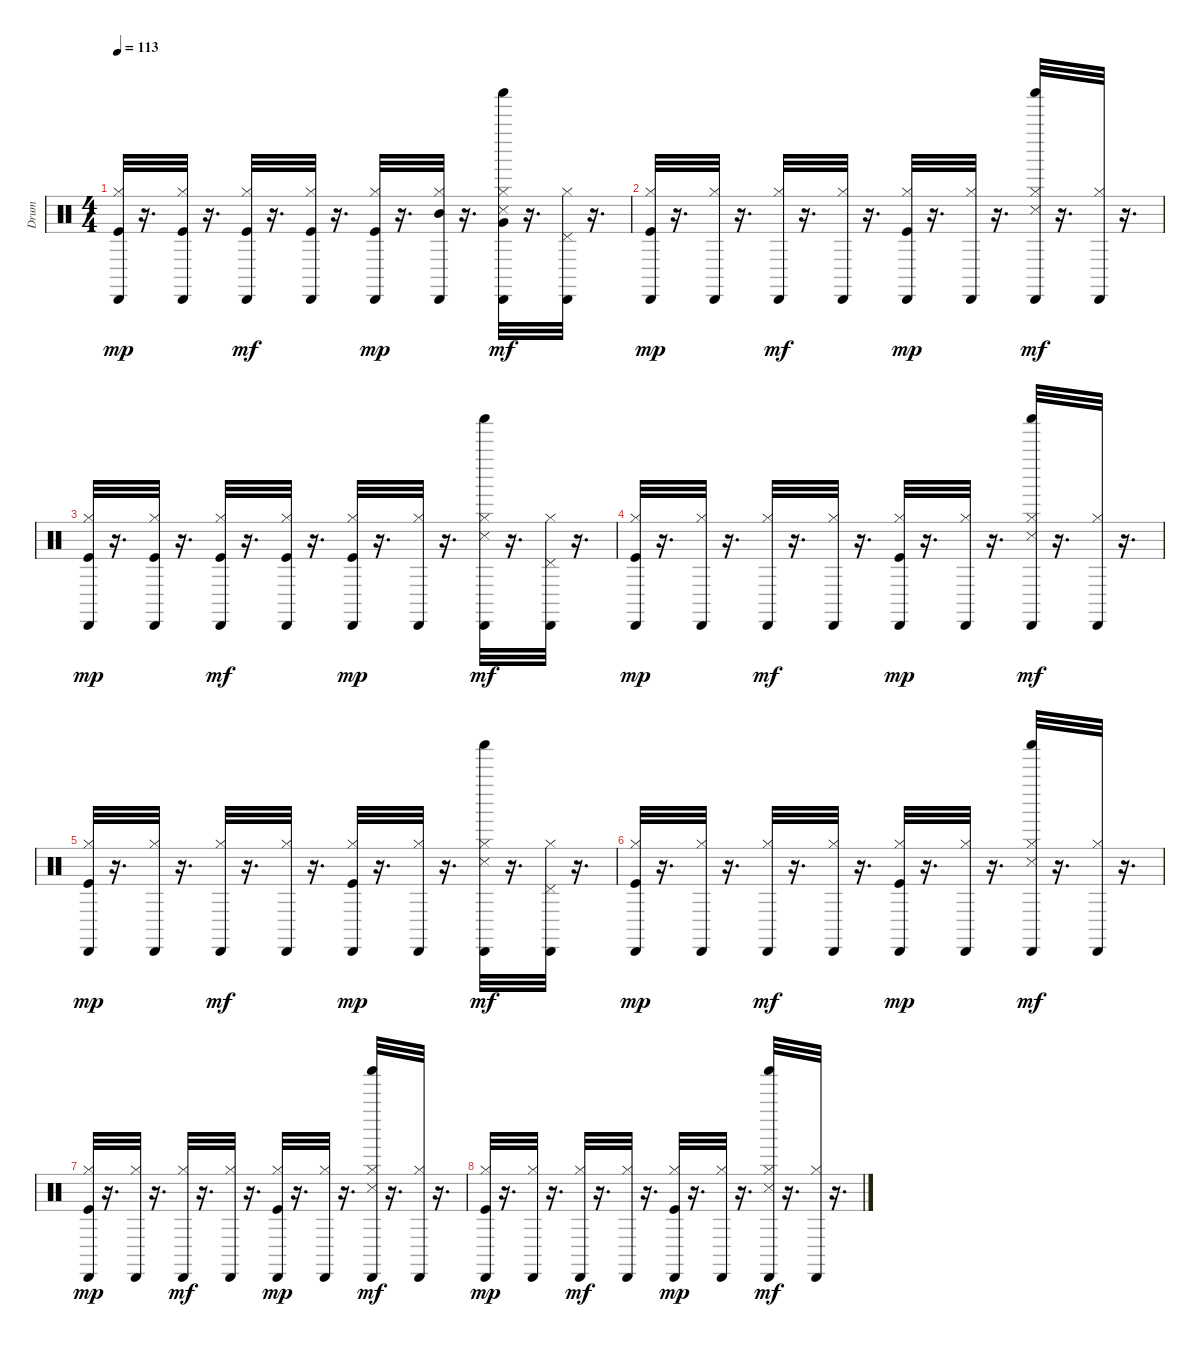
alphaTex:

\track ("Drum" "Drum") {instrument percussion}
\staff {score}
\articulation defaults
\ts (4 4)
\tempo 113
\clef neutral
\ks c
("Hi-Hat (closed)" "Kick (hit)" "Cabasa (hit)").32{dy mp} r.16{d} ("Hi-Hat (closed)" "Kick (hit)" "Cabasa (hit)").32 r.16{d} ("Hi-Hat (closed)" "Kick (hit)" "Cabasa (hit)").32{dy mf} r.16{d} ("Hi-Hat (closed)" "Kick (hit)" "Cabasa (hit)").32 r.16{d} ("Hi-Hat (closed)" "Kick (hit)" "Cabasa (hit)").32{dy mp} r.16{d} ("Hi-Hat (closed)" "Mid Tom (hit)" "Cabasa (hit)").32 r.16{d} ("Hi-Hat (closed)" "Very Low Tom (hit)" "Shaker (hit)" "Snare (side stick) 3" "Cabasa (hit)").32{dy mf} r.16{d} ("Hi-Hat (closed)" "Pedal Hi-Hat (hit)" "Cabasa (hit)").32 r.16{d} |
("Hi-Hat (closed)" "Kick (hit)" "Cabasa (hit)").32{dy mp} r.16{d} ("Hi-Hat (closed)" "Cabasa (hit)").32 r.16{d} ("Hi-Hat (closed)" "Cabasa (hit)").32{dy mf} r.16{d} ("Hi-Hat (closed)" "Cabasa (hit)").32 r.16{d} ("Hi-Hat (closed)" "Kick (hit)" "Cabasa (hit)").32{dy mp} r.16{d} ("Hi-Hat (closed)" "Cabasa (hit)").32 r.16{d} ("Hi-Hat (closed)" "Shaker (hit)" "Snare (side stick) 3" "Cabasa (hit)").32{dy mf} r.16{d} ("Hi-Hat (closed)" "Cabasa (hit)").32 r.16{d} |
("Hi-Hat (closed)" "Kick (hit)" "Cabasa (hit)").32{dy mp} r.16{d} ("Hi-Hat (closed)" "Kick (hit)" "Cabasa (hit)").32 r.16{d} ("Hi-Hat (closed)" "Kick (hit)" "Cabasa (hit)").32{dy mf} r.16{d} ("Hi-Hat (closed)" "Kick (hit)" "Cabasa (hit)").32 r.16{d} ("Hi-Hat (closed)" "Kick (hit)" "Cabasa (hit)").32{dy mp} r.16{d} ("Hi-Hat (closed)" "Cabasa (hit)").32 r.16{d} ("Hi-Hat (closed)" "Shaker (hit)" "Snare (side stick) 3" "Cabasa (hit)").32{dy mf} r.16{d} ("Hi-Hat (closed)" "Pedal Hi-Hat (hit)" "Cabasa (hit)").32 r.16{d} |
("Hi-Hat (closed)" "Kick (hit)" "Cabasa (hit)").32{dy mp} r.16{d} ("Hi-Hat (closed)" "Cabasa (hit)").32 r.16{d} ("Hi-Hat (closed)" "Cabasa (hit)").32{dy mf} r.16{d} ("Hi-Hat (closed)" "Cabasa (hit)").32 r.16{d} ("Hi-Hat (closed)" "Kick (hit)" "Cabasa (hit)").32{dy mp} r.16{d} ("Hi-Hat (closed)" "Cabasa (hit)").32 r.16{d} ("Hi-Hat (closed)" "Shaker (hit)" "Snare (side stick) 3" "Cabasa (hit)").32{dy mf} r.16{d} ("Hi-Hat (closed)" "Cabasa (hit)").32 r.16{d} |
("Hi-Hat (closed)" "Kick (hit)" "Cabasa (hit)").32{dy mp} r.16{d} ("Hi-Hat (closed)" "Cabasa (hit)").32 r.16{d} ("Hi-Hat (closed)" "Cabasa (hit)").32{dy mf} r.16{d} ("Hi-Hat (closed)" "Cabasa (hit)").32 r.16{d} ("Hi-Hat (closed)" "Kick (hit)" "Cabasa (hit)").32{dy mp} r.16{d} ("Hi-Hat (closed)" "Cabasa (hit)").32 r.16{d} ("Hi-Hat (closed)" "Shaker (hit)" "Snare (side stick) 3" "Cabasa (hit)").32{dy mf} r.16{d} ("Hi-Hat (closed)" "Pedal Hi-Hat (hit)" "Cabasa (hit)").32 r.16{d} |
("Hi-Hat (closed)" "Kick (hit)" "Cabasa (hit)").32{dy mp} r.16{d} ("Hi-Hat (closed)" "Cabasa (hit)").32 r.16{d} ("Hi-Hat (closed)" "Cabasa (hit)").32{dy mf} r.16{d} ("Hi-Hat (closed)" "Cabasa (hit)").32 r.16{d} ("Hi-Hat (closed)" "Kick (hit)" "Cabasa (hit)").32{dy mp} r.16{d} ("Hi-Hat (closed)" "Cabasa (hit)").32 r.16{d} ("Hi-Hat (closed)" "Shaker (hit)" "Snare (side stick) 3" "Cabasa (hit)").32{dy mf} r.16{d} ("Hi-Hat (closed)" "Cabasa (hit)").32 r.16{d} |
("Hi-Hat (closed)" "Kick (hit)" "Cabasa (hit)").32{dy mp} r.16{d} ("Hi-Hat (closed)" "Cabasa (hit)").32 r.16{d} ("Hi-Hat (closed)" "Cabasa (hit)").32{dy mf} r.16{d} ("Hi-Hat (closed)" "Cabasa (hit)").32 r.16{d} ("Hi-Hat (closed)" "Kick (hit)" "Cabasa (hit)").32{dy mp} r.16{d} ("Hi-Hat (closed)" "Cabasa (hit)").32 r.16{d} ("Hi-Hat (closed)" "Shaker (hit)" "Snare (side stick) 3" "Cabasa (hit)").32{dy mf} r.16{d} ("Hi-Hat (closed)" "Cabasa (hit)").32 r.16{d} |
("Hi-Hat (closed)" "Kick (hit)" "Cabasa (hit)").32{dy mp} r.16{d} ("Hi-Hat (closed)" "Cabasa (hit)").32 r.16{d} ("Hi-Hat (closed)" "Cabasa (hit)").32{dy mf} r.16{d} ("Hi-Hat (closed)" "Cabasa (hit)").32 r.16{d} ("Hi-Hat (closed)" "Kick (hit)" "Cabasa (hit)").32{dy mp} r.16{d} ("Hi-Hat (closed)" "Cabasa (hit)").32 r.16{d} ("Hi-Hat (closed)" "Shaker (hit)" "Snare (side stick) 3" "Cabasa (hit)").32{dy mf} r.16{d} ("Hi-Hat (closed)" "Cabasa (hit)").32 r.16{d}
